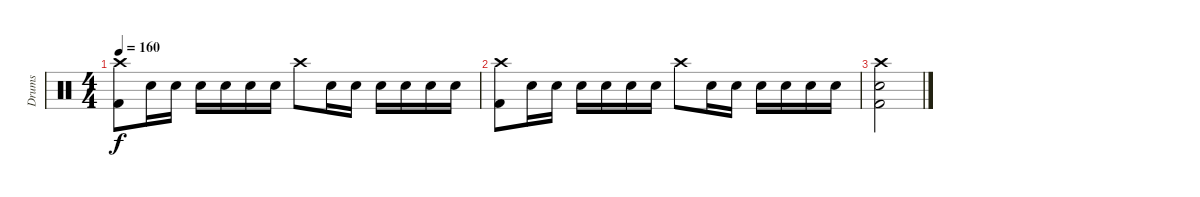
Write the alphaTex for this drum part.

\track ("Drums" "Drums") {solo instrument percussion}
\staff {score}
\articulation defaults
\ts (4 4)
\tempo 160
\clef neutral
\ks c
("Crash high (hit)" "Kick (hit) 2").8{dy f} "Snare (hit) 2".16 "Snare (hit) 2".16 "Snare (hit) 2".16 "Snare (hit) 2".16 "Snare (hit) 2".16 "Snare (hit) 2".16 "Crash high (hit)".8 "Snare (hit) 2".16 "Snare (hit) 2".16 "Snare (hit) 2".16 "Snare (hit) 2".16 "Snare (hit) 2".16 "Snare (hit) 2".16 |
("Crash high (hit)" "Kick (hit) 2").8 "Snare (hit) 2".16 "Snare (hit) 2".16 "Snare (hit) 2".16 "Snare (hit) 2".16 "Snare (hit) 2".16 "Snare (hit) 2".16 "Crash high (hit)".8 "Snare (hit) 2".16 "Snare (hit) 2".16 "Snare (hit) 2".16 "Snare (hit) 2".16 "Snare (hit) 2".16 "Snare (hit) 2".16 |
("Crash high (hit)" "Snare (hit) 2" "Kick (hit) 2").2
